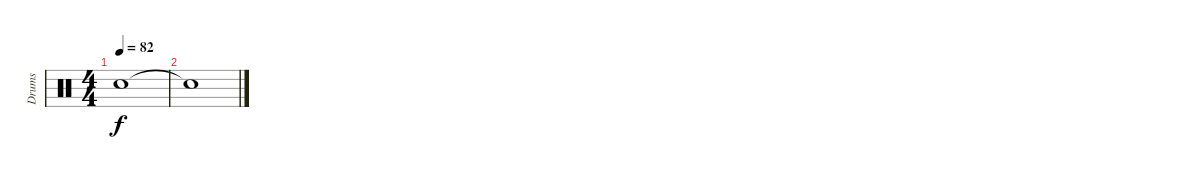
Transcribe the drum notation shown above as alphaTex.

\track ("Drums" "Drums") {instrument percussion}
\staff {score}
\articulation defaults
\ts (4 4)
\tempo 82
\clef neutral
\ks c "Snare (hit)"{t}.1{dy f volume 0}
|
"Snare (hit)"{t}.1
